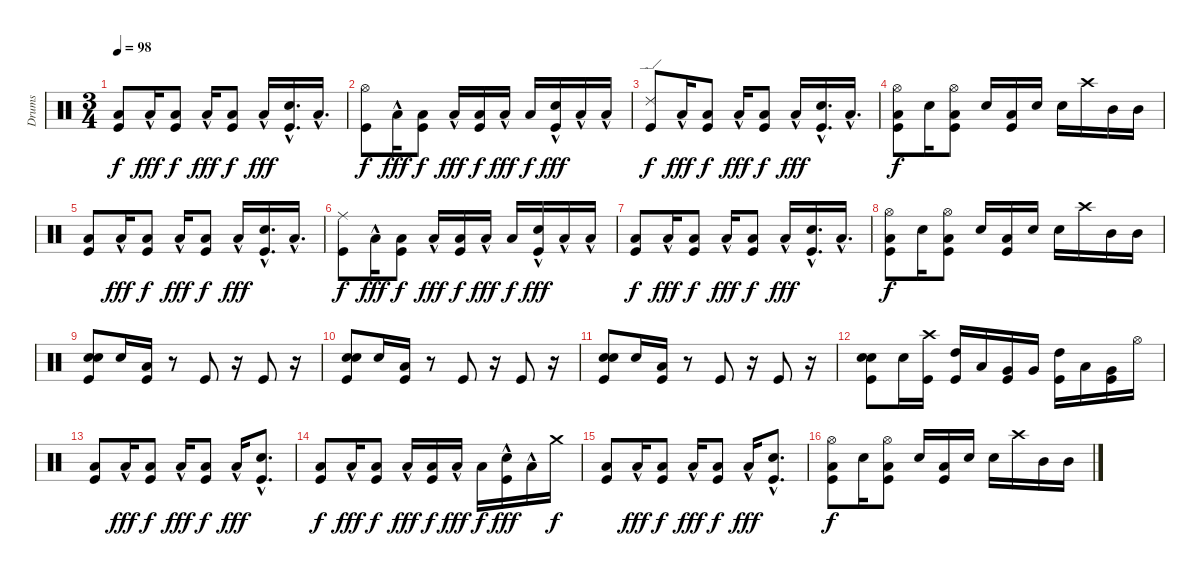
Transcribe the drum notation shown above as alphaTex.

\track ("Drums" "Drums") {instrument percussion}
\staff {score}
\articulation defaults
\ts (3 4)
\tempo 98
\clef neutral
\ks c
("Low Floor Tom (hit)" "Kick (hit)").8{dy f} "Low Floor Tom (hit)"{hac}.16{dy fff} ("Low Floor Tom (hit)" "Kick (hit)").8{dy f} "Low Floor Tom (hit)"{hac}.16{dy fff} ("Low Floor Tom (hit)" "Kick (hit)").8{dy f} "Low Floor Tom (hit)"{hac}.16{dy fff} ("Snare (hit) 2"{hac} "Kick (hit)").16{d} "Low Floor Tom (hit)"{hac}.16{d} |
("Hi-Hat (open)" "Kick (hit)").8{dy f} "Low Floor Tom (hit)"{hac}.16{dy fff} ("Low Floor Tom (hit)" "Kick (hit)").8{dy f} "Low Floor Tom (hit)"{hac}.16{dy fff} ("Low Floor Tom (hit)" "Kick (hit)").16{dy f} "Low Floor Tom (hit)"{hac}.16{dy fff} "Low Floor Tom (hit)".16{dy f} ("Snare (hit) 2"{hac} "Kick (hit)").16{dy fff} "Low Floor Tom (hit)"{hac}.16 "Low Floor Tom (hit)"{hac}.16 |
("Ride (edge) 2" "Kick (hit)").8{dy f} "Low Floor Tom (hit)"{hac}.16{dy fff} ("Low Floor Tom (hit)" "Kick (hit)").8{dy f} "Low Floor Tom (hit)"{hac}.16{dy fff} ("Low Floor Tom (hit)" "Kick (hit)").8{dy f} "Low Floor Tom (hit)"{hac}.16{dy fff} ("Snare (hit) 2"{hac} "Kick (hit)").16{d} "Low Floor Tom (hit)"{hac}.16{d} |
("Low Floor Tom (hit)" "Kick (hit)" "Hi-Hat (open)").8{dy f} "Snare (hit) 2".16 ("Kick (hit)" "Low Floor Tom (hit)" "Hi-Hat (open)").8 "Snare (hit) 2".16 ("Low Floor Tom (hit)" "Kick (hit)").16 "Snare (hit) 2".16 "Snare (hit) 2".16 "Crash high (hit)".16 "Mid Tom (hit)".16 "Mid Tom (hit)".16 |
("Low Floor Tom (hit)" "Kick (hit)").8 "Low Floor Tom (hit)"{hac}.16{dy fff} ("Low Floor Tom (hit)" "Kick (hit)").8{dy f} "Low Floor Tom (hit)"{hac}.16{dy fff} ("Low Floor Tom (hit)" "Kick (hit)").8{dy f} "Low Floor Tom (hit)"{hac}.16{dy fff} ("Snare (hit) 2"{hac} "Kick (hit)").16{d} "Low Floor Tom (hit)"{hac}.16{d} |
("Ride (middle)" "Kick (hit)").8{dy f} "Low Floor Tom (hit)"{hac}.16{dy fff} ("Low Floor Tom (hit)" "Kick (hit)").8{dy f} "Low Floor Tom (hit)"{hac}.16{dy fff} ("Low Floor Tom (hit)" "Kick (hit)").16{dy f} "Low Floor Tom (hit)"{hac}.16{dy fff} "Low Floor Tom (hit)".16{dy f} ("Snare (hit) 2"{hac} "Kick (hit)").16{dy fff} "Low Floor Tom (hit)"{hac}.16 "Low Floor Tom (hit)"{hac}.16 |
("Low Floor Tom (hit)" "Kick (hit)").8{dy f} "Low Floor Tom (hit)"{hac}.16{dy fff} ("Low Floor Tom (hit)" "Kick (hit)").8{dy f} "Low Floor Tom (hit)"{hac}.16{dy fff} ("Low Floor Tom (hit)" "Kick (hit)").8{dy f} "Low Floor Tom (hit)"{hac}.16{dy fff} ("Snare (hit) 2"{hac} "Kick (hit)").16{d} "Low Floor Tom (hit)"{hac}.16{d} |
("Low Floor Tom (hit)" "Kick (hit)" "Hi-Hat (open)").8{dy f} "Snare (hit) 2".16 ("Kick (hit)" "Low Floor Tom (hit)" "Hi-Hat (open)").8 "Snare (hit) 2".16 ("Low Floor Tom (hit)" "Kick (hit)").16 "Snare (hit) 2".16 "Snare (hit) 2".16 "Crash high (hit)".16 "Mid Tom (hit)".16 "Mid Tom (hit)".16 |
("Kick (hit)" "Snare (hit) 2" "Snare (hit) 2").8 "Snare (hit) 2".16 ("Low Floor Tom (hit)" "Kick (hit)").16 r.8 "Kick (hit)".8 r.16{beam split} "Kick (hit)".8 r.16 |
("Kick (hit)" "Snare (hit) 2" "Snare (hit) 2").8 "Snare (hit) 2".16 ("Low Floor Tom (hit)" "Kick (hit)").16 r.8 "Kick (hit)".8 r.16{beam split} "Kick (hit)".8 r.16 |
("Kick (hit)" "Snare (hit) 2" "Snare (hit) 2").8 "Snare (hit) 2".16 ("Low Floor Tom (hit)" "Kick (hit)").16 r.8 "Kick (hit)".8 r.16{beam split} "Kick (hit)".8 r.16 |
("Kick (hit)" "Snare (hit) 2" "Snare (hit) 2").8 "Snare (hit) 2".16 ("Crash high (hit)" "Kick (hit)").16 ("Kick (hit)" "High Tom (hit)").16 "Low Tom (hit)".16 ("Very Low Tom (hit)" "Kick (hit)").16 "Very Low Tom (hit)".16 ("Kick (hit)" "High Tom (hit)").16 "Low Tom (hit)".16 ("Very Low Tom (hit)" "Kick (hit)").16 "Hi-Hat (open)".16 |
("Low Floor Tom (hit)" "Kick (hit)").8 "Low Floor Tom (hit)"{hac}.16{dy fff} ("Low Floor Tom (hit)" "Kick (hit)").8{dy f} "Low Floor Tom (hit)"{hac}.16{dy fff} ("Low Floor Tom (hit)" "Kick (hit)").8{dy f} "Low Floor Tom (hit)"{hac}.16{dy fff} ("Snare (hit) 2"{hac} "Kick (hit)").8{d} |
("Low Floor Tom (hit)" "Kick (hit)").8{dy f} "Low Floor Tom (hit)"{hac}.16{dy fff} ("Low Floor Tom (hit)" "Kick (hit)").8{dy f} "Low Floor Tom (hit)"{hac}.16{dy fff} ("Low Floor Tom (hit)" "Kick (hit)").16{dy f} "Low Floor Tom (hit)"{hac}.16{dy fff} "Low Floor Tom (hit)".16{dy f} ("Snare (hit) 2"{hac} "Kick (hit)").16{dy fff} "Low Floor Tom (hit)"{hac}.16 "Crash medium (hit)".16{dy f} |
("Low Floor Tom (hit)" "Kick (hit)").8 "Low Floor Tom (hit)"{hac}.16{dy fff} ("Low Floor Tom (hit)" "Kick (hit)").8{dy f} "Low Floor Tom (hit)"{hac}.16{dy fff} ("Low Floor Tom (hit)" "Kick (hit)").8{dy f} "Low Floor Tom (hit)"{hac}.16{dy fff} ("Snare (hit) 2"{hac} "Kick (hit)").8{d} |
("Low Floor Tom (hit)" "Kick (hit)" "Hi-Hat (open)").8{dy f} "Snare (hit) 2".16 ("Kick (hit)" "Low Floor Tom (hit)" "Hi-Hat (open)").8 "Snare (hit) 2".16 ("Low Floor Tom (hit)" "Kick (hit)").16 "Snare (hit) 2".16 "Snare (hit) 2".16 "Crash high (hit)".16 "Mid Tom (hit)".16 "Mid Tom (hit)".16
